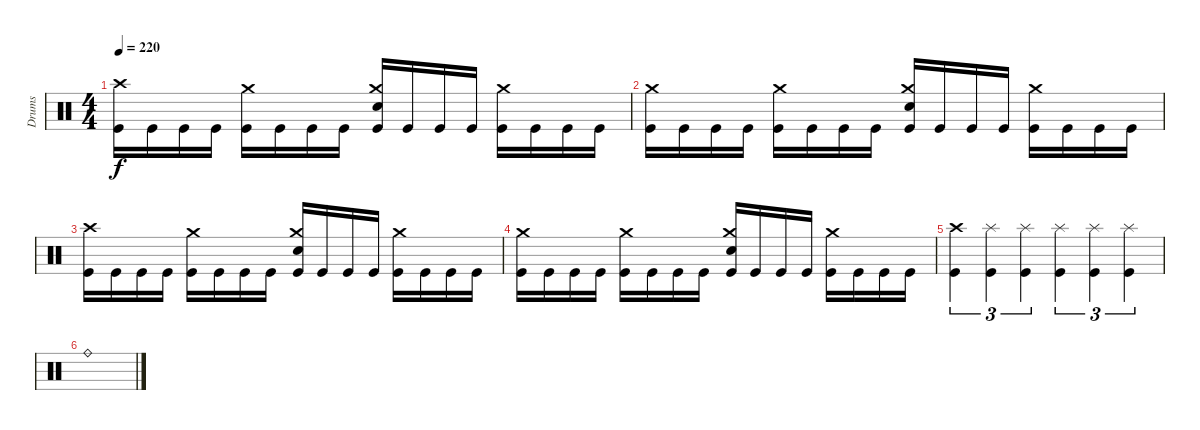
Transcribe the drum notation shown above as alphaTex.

\track ("Drums" "Drums") {instrument percussion}
\staff {score}
\articulation defaults
\ts (4 4)
\tempo 220
\clef neutral
\ks c
("Crash high (hit)" "Kick (hit)").16{dy f} "Kick (hit)".16 "Kick (hit)".16 "Kick (hit)".16 ("Crash medium (hit)" "Kick (hit)").16 "Kick (hit)".16 "Kick (hit)".16 "Kick (hit)".16 ("Crash medium (hit)" "Snare (hit) 2" "Kick (hit)").16 "Kick (hit)".16 "Kick (hit)".16 "Kick (hit)".16 ("Crash medium (hit)" "Kick (hit)").16 "Kick (hit)".16 "Kick (hit)".16 "Kick (hit)".16 |
("Crash medium (hit)" "Kick (hit)").16 "Kick (hit)".16 "Kick (hit)".16 "Kick (hit)".16 ("Crash medium (hit)" "Kick (hit)").16 "Kick (hit)".16 "Kick (hit)".16 "Kick (hit)".16 ("Crash medium (hit)" "Snare (hit) 2" "Kick (hit)").16 "Kick (hit)".16 "Kick (hit)".16 "Kick (hit)".16 ("Crash medium (hit)" "Kick (hit)").16 "Kick (hit)".16 "Kick (hit)".16 "Kick (hit)".16 |
("Crash high (hit)" "Kick (hit)").16 "Kick (hit)".16 "Kick (hit)".16 "Kick (hit)".16 ("Crash medium (hit)" "Kick (hit)").16 "Kick (hit)".16 "Kick (hit)".16 "Kick (hit)".16 ("Crash medium (hit)" "Snare (hit) 2" "Kick (hit)").16 "Kick (hit)".16 "Kick (hit)".16 "Kick (hit)".16 ("Crash medium (hit)" "Kick (hit)").16 "Kick (hit)".16 "Kick (hit)".16 "Kick (hit)".16 |
("Crash medium (hit)" "Kick (hit)").16 "Kick (hit)".16 "Kick (hit)".16 "Kick (hit)".16 ("Crash medium (hit)" "Kick (hit)").16 "Kick (hit)".16 "Kick (hit)".16 "Kick (hit)".16 ("Crash medium (hit)" "Snare (hit) 2" "Kick (hit)").16 "Kick (hit)".16 "Kick (hit)".16 "Kick (hit)".16 ("Crash medium (hit)" "Kick (hit)").16 "Kick (hit)".16 "Kick (hit)".16 "Kick (hit)".16 |
("Crash high (hit)" "Kick (hit)").4{tu (3 2)} ("Splash (hit)" "Kick (hit)").4{tu (3 2)} ("Splash (hit)" "Kick (hit)").4{tu (3 2)} ("Splash (hit)" "Kick (hit)").4{tu (3 2)} ("Splash (hit)" "Kick (hit)").4{tu (3 2)} ("Splash (hit)" "Kick (hit)").4{tu (3 2)} |
"Ride (bell)".1
